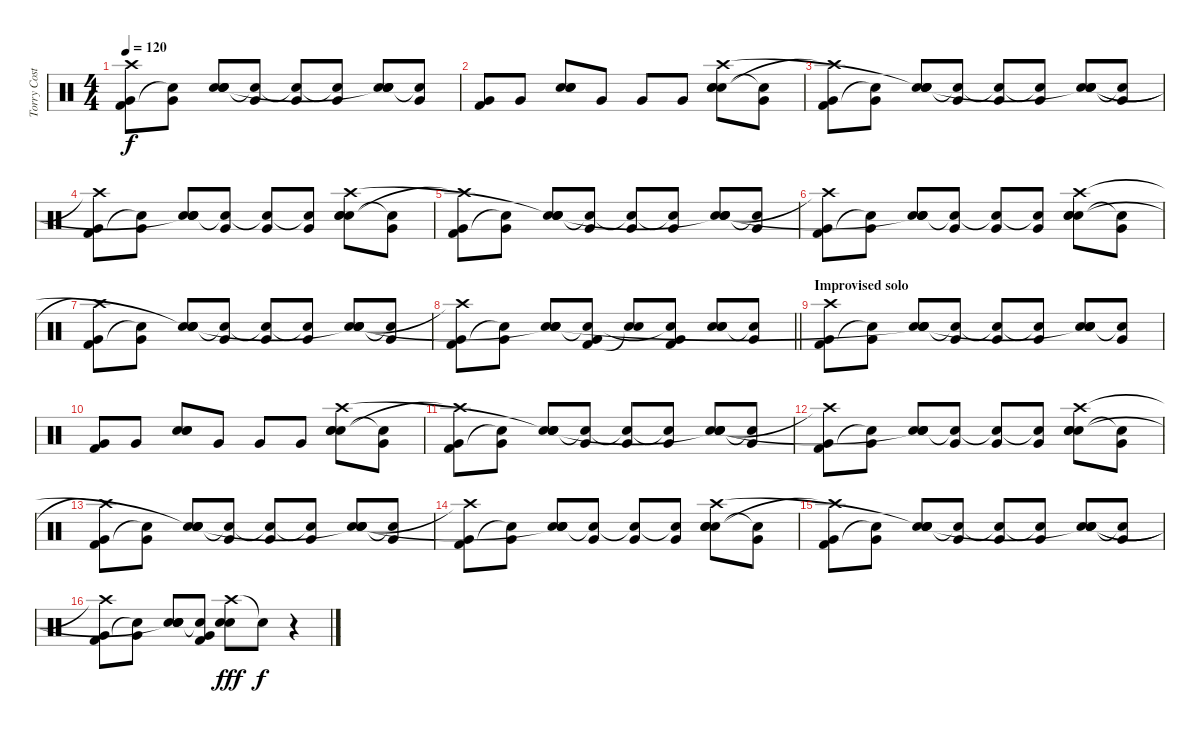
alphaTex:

\track ("Torry Costellano" "Torry Cost") {instrument percussion}
\staff {score}
\articulation defaults
\ts (4 4)
\tempo 120
\clef neutral
\ks c
("Very Low Tom (hit)" "Kick (hit) 2" "Crash high (hit)").8{dy f} ("Very Low Tom (hit)" "Snare (hit)"{t}).8 ("Hand Clap (hit)" "Hand Clap (hit)" "Electric Snare (hit)" "Snare (hit)").8 ("Very Low Tom (hit)" "Snare (hit)"{t}).8 ("Very Low Tom (hit)" "Snare (hit)"{t}).8 ("Very Low Tom (hit)" "Snare (hit)"{t}).8 ("Hand Clap (hit)" "Hand Clap (hit)" "Electric Snare (hit)" "Snare (hit)"{t}).8 ("Very Low Tom (hit)" "Snare (hit)"{t}).8 |
("Very Low Tom (hit)" "Kick (hit) 2").8 "Very Low Tom (hit)".8 ("Hand Clap (hit)" "Hand Clap (hit)" "Electric Snare (hit)").8 "Very Low Tom (hit)".8 "Very Low Tom (hit)".8 "Very Low Tom (hit)".8 ("Hand Clap (hit)" "Hand Clap (hit)" "Electric Snare (hit)" "Crash high (hit)").8 ("Very Low Tom (hit)" "Snare (hit)"{t}).8 |
("Very Low Tom (hit)" "Kick (hit) 2" "Crash high (hit)"{t}).8 ("Very Low Tom (hit)" "Snare (hit)"{t}).8 ("Hand Clap (hit)" "Hand Clap (hit)" "Electric Snare (hit)" "Snare (hit)"{t}).8 ("Very Low Tom (hit)" "Snare (hit)"{t}).8 ("Very Low Tom (hit)" "Snare (hit)"{t}).8 ("Very Low Tom (hit)" "Snare (hit)"{t}).8 ("Hand Clap (hit)" "Hand Clap (hit)" "Electric Snare (hit)" "Snare (hit)"{t}).8 ("Very Low Tom (hit)" "Snare (hit)"{t}).8 |
("Very Low Tom (hit)" "Kick (hit) 2" "Crash high (hit)"{t}).8 ("Very Low Tom (hit)" "Snare (hit)"{t}).8 ("Hand Clap (hit)" "Hand Clap (hit)" "Electric Snare (hit)" "Snare (hit)"{t}).8 ("Very Low Tom (hit)" "Snare (hit)"{t}).8 ("Very Low Tom (hit)" "Snare (hit)"{t}).8 ("Very Low Tom (hit)" "Snare (hit)"{t}).8 ("Hand Clap (hit)" "Hand Clap (hit)" "Electric Snare (hit)" "Crash high (hit)").8 ("Very Low Tom (hit)" "Snare (hit)"{t}).8 |
("Very Low Tom (hit)" "Kick (hit) 2" "Crash high (hit)"{t}).8 ("Very Low Tom (hit)" "Snare (hit)"{t}).8 ("Hand Clap (hit)" "Hand Clap (hit)" "Electric Snare (hit)" "Snare (hit)"{t}).8 ("Very Low Tom (hit)" "Snare (hit)"{t}).8 ("Very Low Tom (hit)" "Snare (hit)"{t}).8 ("Very Low Tom (hit)" "Snare (hit)"{t}).8 ("Hand Clap (hit)" "Hand Clap (hit)" "Electric Snare (hit)" "Snare (hit)"{t}).8 ("Very Low Tom (hit)" "Snare (hit)"{t}).8 |
("Very Low Tom (hit)" "Kick (hit) 2" "Crash high (hit)"{t}).8 ("Very Low Tom (hit)" "Snare (hit)"{t}).8 ("Hand Clap (hit)" "Hand Clap (hit)" "Electric Snare (hit)" "Snare (hit)"{t}).8 ("Very Low Tom (hit)" "Snare (hit)"{t}).8 ("Very Low Tom (hit)" "Snare (hit)"{t}).8 ("Very Low Tom (hit)" "Snare (hit)"{t}).8 ("Hand Clap (hit)" "Hand Clap (hit)" "Electric Snare (hit)" "Crash high (hit)").8 ("Very Low Tom (hit)" "Snare (hit)"{t}).8 |
("Very Low Tom (hit)" "Kick (hit) 2" "Crash high (hit)"{t}).8 ("Very Low Tom (hit)" "Snare (hit)"{t}).8 ("Hand Clap (hit)" "Hand Clap (hit)" "Electric Snare (hit)" "Snare (hit)"{t}).8 ("Very Low Tom (hit)" "Snare (hit)"{t}).8 ("Very Low Tom (hit)" "Snare (hit)"{t}).8 ("Very Low Tom (hit)" "Snare (hit)"{t}).8 ("Hand Clap (hit)" "Hand Clap (hit)" "Electric Snare (hit)" "Snare (hit)"{t}).8 ("Very Low Tom (hit)" "Snare (hit)"{t}).8 |
\barLineRight lightlight
("Very Low Tom (hit)" "Kick (hit) 2" "Crash high (hit)"{t}).8 ("Very Low Tom (hit)" "Snare (hit)"{t}).8 ("Hand Clap (hit)" "Hand Clap (hit)" "Electric Snare (hit)" "Snare (hit)"{t}).8 ("Very Low Tom (hit)" "Kick (hit) 2" "Snare (hit)"{t}).8 ("Electric Snare (hit)" "Snare (hit)"{t}).8 ("Very Low Tom (hit)" "Kick (hit) 2" "Snare (hit)"{t}).8 ("Hand Clap (hit)" "Hand Clap (hit)" "Electric Snare (hit)").8 ("Very Low Tom (hit)" "Snare (hit)"{t}).8 |
\section ("" "Improvised solo")
("Very Low Tom (hit)" "Kick (hit) 2" "Crash high (hit)").8 ("Very Low Tom (hit)" "Snare (hit)"{t}).8 ("Hand Clap (hit)" "Hand Clap (hit)" "Electric Snare (hit)" "Snare (hit)"{t}).8 ("Very Low Tom (hit)" "Snare (hit)"{t}).8 ("Very Low Tom (hit)" "Snare (hit)"{t}).8 ("Very Low Tom (hit)" "Snare (hit)"{t}).8 ("Hand Clap (hit)" "Hand Clap (hit)" "Electric Snare (hit)" "Snare (hit)"{t}).8 ("Very Low Tom (hit)" "Snare (hit)"{t}).8 |
("Very Low Tom (hit)" "Kick (hit) 2").8 "Very Low Tom (hit)".8 ("Hand Clap (hit)" "Hand Clap (hit)" "Electric Snare (hit)").8 "Very Low Tom (hit)".8 "Very Low Tom (hit)".8 "Very Low Tom (hit)".8 ("Hand Clap (hit)" "Hand Clap (hit)" "Electric Snare (hit)" "Crash high (hit)").8 ("Very Low Tom (hit)" "Snare (hit)"{t}).8 |
("Very Low Tom (hit)" "Kick (hit) 2" "Crash high (hit)"{t}).8 ("Very Low Tom (hit)" "Snare (hit)"{t}).8 ("Hand Clap (hit)" "Hand Clap (hit)" "Electric Snare (hit)" "Snare (hit)"{t}).8 ("Very Low Tom (hit)" "Snare (hit)"{t}).8 ("Very Low Tom (hit)" "Snare (hit)"{t}).8 ("Very Low Tom (hit)" "Snare (hit)"{t}).8 ("Hand Clap (hit)" "Hand Clap (hit)" "Electric Snare (hit)" "Snare (hit)"{t}).8 ("Very Low Tom (hit)" "Snare (hit)"{t}).8 |
("Very Low Tom (hit)" "Kick (hit) 2" "Crash high (hit)"{t}).8 ("Very Low Tom (hit)" "Snare (hit)"{t}).8 ("Hand Clap (hit)" "Hand Clap (hit)" "Electric Snare (hit)" "Snare (hit)"{t}).8 ("Very Low Tom (hit)" "Snare (hit)"{t}).8 ("Very Low Tom (hit)" "Snare (hit)"{t}).8 ("Very Low Tom (hit)" "Snare (hit)"{t}).8 ("Hand Clap (hit)" "Hand Clap (hit)" "Electric Snare (hit)" "Crash high (hit)").8 ("Very Low Tom (hit)" "Snare (hit)"{t}).8 |
("Very Low Tom (hit)" "Kick (hit) 2" "Crash high (hit)"{t}).8 ("Very Low Tom (hit)" "Snare (hit)"{t}).8 ("Hand Clap (hit)" "Hand Clap (hit)" "Electric Snare (hit)" "Snare (hit)"{t}).8 ("Very Low Tom (hit)" "Snare (hit)"{t}).8 ("Very Low Tom (hit)" "Snare (hit)"{t}).8 ("Very Low Tom (hit)" "Snare (hit)"{t}).8 ("Hand Clap (hit)" "Hand Clap (hit)" "Electric Snare (hit)" "Snare (hit)"{t}).8 ("Very Low Tom (hit)" "Snare (hit)"{t}).8 |
("Very Low Tom (hit)" "Kick (hit) 2" "Crash high (hit)"{t}).8 ("Very Low Tom (hit)" "Snare (hit)"{t}).8 ("Hand Clap (hit)" "Hand Clap (hit)" "Electric Snare (hit)" "Snare (hit)"{t}).8 ("Very Low Tom (hit)" "Snare (hit)"{t}).8 ("Very Low Tom (hit)" "Snare (hit)"{t}).8 ("Very Low Tom (hit)" "Snare (hit)"{t}).8 ("Hand Clap (hit)" "Hand Clap (hit)" "Electric Snare (hit)" "Crash high (hit)").8 ("Very Low Tom (hit)" "Snare (hit)"{t}).8 |
("Very Low Tom (hit)" "Kick (hit) 2" "Crash high (hit)"{t}).8 ("Very Low Tom (hit)" "Snare (hit)"{t}).8 ("Hand Clap (hit)" "Hand Clap (hit)" "Electric Snare (hit)" "Snare (hit)"{t}).8 ("Very Low Tom (hit)" "Snare (hit)"{t}).8 ("Very Low Tom (hit)" "Snare (hit)"{t}).8 ("Very Low Tom (hit)" "Snare (hit)"{t}).8 ("Hand Clap (hit)" "Hand Clap (hit)" "Electric Snare (hit)" "Snare (hit)"{t}).8 ("Very Low Tom (hit)" "Snare (hit)"{t}).8 |
("Very Low Tom (hit)" "Kick (hit) 2" "Crash high (hit)"{t}).8 ("Very Low Tom (hit)" "Snare (hit)"{t}).8 ("Hand Clap (hit)" "Hand Clap (hit)" "Electric Snare (hit)" "Snare (hit)"{t}).8 ("Very Low Tom (hit)" "Kick (hit) 2" "Snare (hit)"{t}).8 ("Crash high (hit)" "Electric Snare (hit)" "Snare (hit)"{t}).8{dy fff} "Snare (hit)"{t}.8{dy f} r.4
